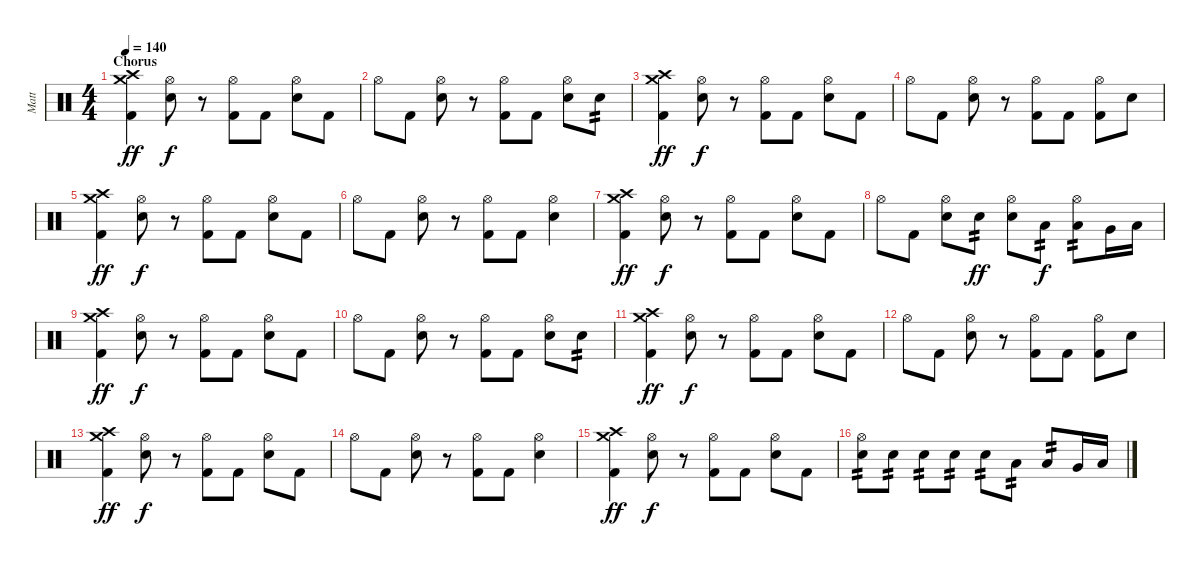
\track ("Matt" "Matt") {instrument percussion}
\staff {score}
\articulation defaults
\ts (4 4)
\section ("" "Chorus")
\tempo 140
\clef neutral
\ks c
("Crash high (hit)" "Crash medium (hit)" "Kick (hit) 2").4{dy ff} ("Hi-Hat (open)" "Snare (hit) 2").8{dy f} r.8 ("Hi-Hat (open)" "Kick (hit) 2").8 "Kick (hit) 2".8 ("Hi-Hat (open)" "Snare (hit) 2").8 "Kick (hit) 2".8 |
"Hi-Hat (open)".8 "Kick (hit) 2".8 ("Hi-Hat (open)" "Snare (hit) 2").8 r.8 ("Hi-Hat (open)" "Kick (hit) 2").8 "Kick (hit) 2".8 ("Hi-Hat (open)" "Snare (hit) 2").8 "Snare (hit) 2".8{tp 2} |
("Crash high (hit)" "Crash medium (hit)" "Kick (hit) 2").4{dy ff} ("Hi-Hat (open)" "Snare (hit) 2").8{dy f} r.8 ("Hi-Hat (open)" "Kick (hit) 2").8 "Kick (hit) 2".8 ("Hi-Hat (open)" "Snare (hit) 2").8 "Kick (hit) 2".8 |
"Hi-Hat (open)".8 "Kick (hit) 2".8 ("Hi-Hat (open)" "Snare (hit) 2").8 r.8 ("Hi-Hat (open)" "Kick (hit) 2").8 "Kick (hit) 2".8 ("Hi-Hat (open)" "Kick (hit) 2").8 "Snare (hit) 2".8 |
("Crash high (hit)" "Crash medium (hit)" "Kick (hit) 2").4{dy ff} ("Hi-Hat (open)" "Snare (hit) 2").8{dy f} r.8 ("Hi-Hat (open)" "Kick (hit) 2").8 "Kick (hit) 2".8 ("Hi-Hat (open)" "Snare (hit) 2").8 "Kick (hit) 2".8 |
"Hi-Hat (open)".8 "Kick (hit) 2".8 ("Hi-Hat (open)" "Snare (hit) 2").8 r.8 ("Hi-Hat (open)" "Kick (hit) 2").8 "Kick (hit) 2".8 ("Hi-Hat (open)" "Snare (hit) 2").4 |
("Crash high (hit)" "Crash medium (hit)" "Kick (hit) 2").4{dy ff} ("Hi-Hat (open)" "Snare (hit) 2").8{dy f} r.8 ("Hi-Hat (open)" "Kick (hit) 2").8 "Kick (hit) 2".8 ("Hi-Hat (open)" "Snare (hit) 2").8 "Kick (hit) 2".8 |
"Hi-Hat (open)".8 "Kick (hit) 2".8 ("Hi-Hat (open)" "Snare (hit) 2").8 "Snare (hit) 2".8{tp 2 dy ff} ("Hi-Hat (open)" "Snare (hit) 2").8 "Low Tom (hit)".8{tp 2 dy f} ("Hi-Hat (open)" "Low Tom (hit)").8{tp 2} "Very Low Tom (hit)".16 "Low Floor Tom (hit)".16 |
("Crash high (hit)" "Crash medium (hit)" "Kick (hit) 2").4{dy ff} ("Hi-Hat (open)" "Snare (hit) 2").8{dy f} r.8 ("Hi-Hat (open)" "Kick (hit) 2").8 "Kick (hit) 2".8 ("Hi-Hat (open)" "Snare (hit) 2").8 "Kick (hit) 2".8 |
"Hi-Hat (open)".8 "Kick (hit) 2".8 ("Hi-Hat (open)" "Snare (hit) 2").8 r.8 ("Hi-Hat (open)" "Kick (hit) 2").8 "Kick (hit) 2".8 ("Hi-Hat (open)" "Snare (hit) 2").8 "Snare (hit) 2".8{tp 2} |
("Crash high (hit)" "Crash medium (hit)" "Kick (hit) 2").4{dy ff} ("Hi-Hat (open)" "Snare (hit) 2").8{dy f} r.8 ("Hi-Hat (open)" "Kick (hit) 2").8 "Kick (hit) 2".8 ("Hi-Hat (open)" "Snare (hit) 2").8 "Kick (hit) 2".8 |
"Hi-Hat (open)".8 "Kick (hit) 2".8 ("Hi-Hat (open)" "Snare (hit) 2").8 r.8 ("Hi-Hat (open)" "Kick (hit) 2").8 "Kick (hit) 2".8 ("Hi-Hat (open)" "Kick (hit) 2").8 "Snare (hit) 2".8 |
("Crash high (hit)" "Crash medium (hit)" "Kick (hit) 2").4{dy ff} ("Hi-Hat (open)" "Snare (hit) 2").8{dy f} r.8 ("Hi-Hat (open)" "Kick (hit) 2").8 "Kick (hit) 2".8 ("Hi-Hat (open)" "Snare (hit) 2").8 "Kick (hit) 2".8 |
"Hi-Hat (open)".8 "Kick (hit) 2".8 ("Hi-Hat (open)" "Snare (hit) 2").8 r.8 ("Hi-Hat (open)" "Kick (hit) 2").8 "Kick (hit) 2".8 ("Hi-Hat (open)" "Snare (hit) 2").4 |
("Crash high (hit)" "Crash medium (hit)" "Kick (hit) 2").4{dy ff} ("Hi-Hat (open)" "Snare (hit) 2").8{dy f} r.8 ("Hi-Hat (open)" "Kick (hit) 2").8 "Kick (hit) 2".8 ("Hi-Hat (open)" "Snare (hit) 2").8 "Kick (hit) 2".8 |
("Hi-Hat (open)" "Snare (hit) 2").8{tp 2} "Snare (hit) 2".8{tp 2} "Snare (hit) 2".8{tp 2} "Snare (hit) 2".8{tp 2} "Snare (hit) 2".8{tp 2} "Low Tom (hit)".8{tp 2} "Low Tom (hit)".8{tp 2} "Very Low Tom (hit)".16 "Low Floor Tom (hit)".16
